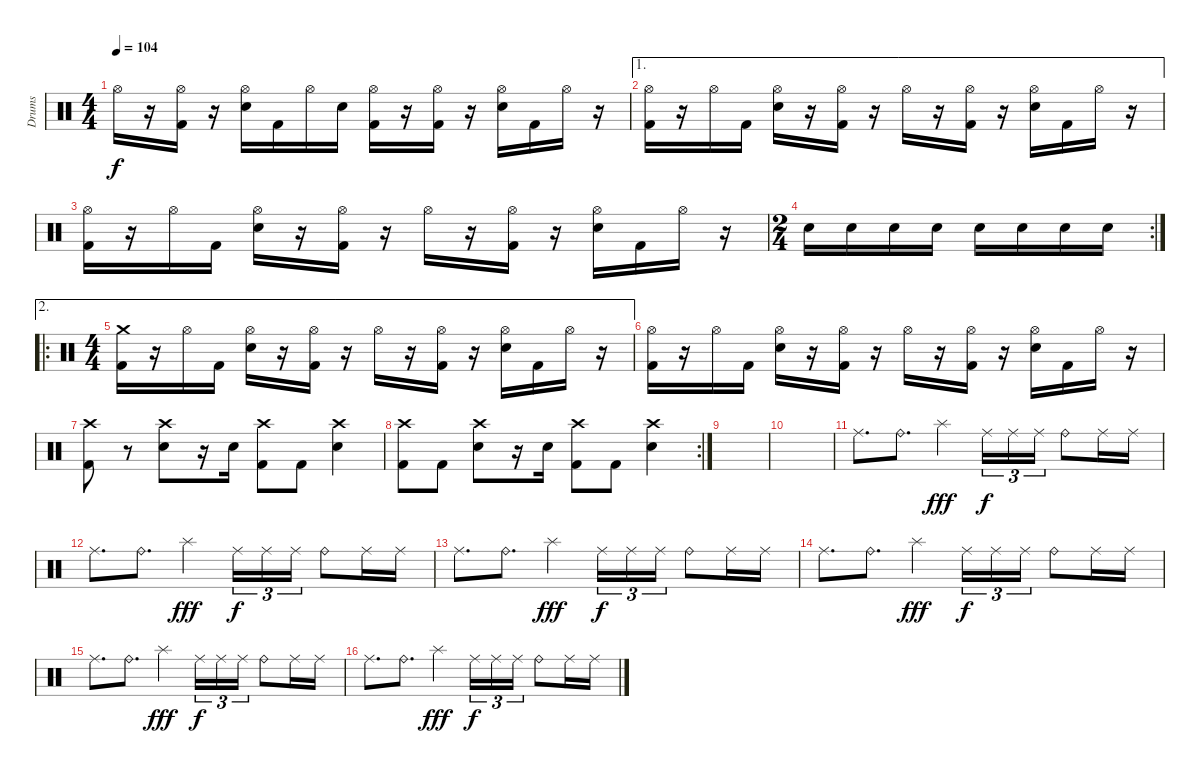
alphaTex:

\track ("Drums" "Drums") {instrument percussion}
\staff {score}
\articulation defaults
\ts (4 4)
\tempo 104
\clef neutral
\ks c "Hi-Hat (open)".16{dy f}
r.16 ("Hi-Hat (open)" "Kick (hit) 2").16 r.16 ("Hi-Hat (open)" "Snare (hit) 2").16 "Kick (hit) 2".16 "Hi-Hat (open)".16 "Snare (hit) 2".16 ("Hi-Hat (open)" "Kick (hit) 2").16 r.16 ("Hi-Hat (open)" "Kick (hit) 2").16 r.16 ("Hi-Hat (open)" "Snare (hit) 2").16 "Kick (hit) 2".16 "Hi-Hat (open)".16 r.16 |
\ae 1
("Hi-Hat (open)" "Kick (hit) 2").16 r.16 "Hi-Hat (open)".16 "Kick (hit) 2".16 ("Hi-Hat (open)" "Snare (hit) 2").16 r.16 ("Hi-Hat (open)" "Kick (hit) 2").16 r.16 "Hi-Hat (open)".16 r.16 ("Hi-Hat (open)" "Kick (hit) 2").16 r.16 ("Hi-Hat (open)" "Snare (hit) 2").16 "Kick (hit) 2".16 "Hi-Hat (open)".16 r.16 |
("Hi-Hat (open)" "Kick (hit) 2").16 r.16 "Hi-Hat (open)".16 "Kick (hit) 2".16 ("Hi-Hat (open)" "Snare (hit) 2").16 r.16 ("Hi-Hat (open)" "Kick (hit) 2").16 r.16 "Hi-Hat (open)".16 r.16 ("Hi-Hat (open)" "Kick (hit) 2").16 r.16 ("Hi-Hat (open)" "Snare (hit) 2").16 "Kick (hit) 2".16 "Hi-Hat (open)".16 r.16 |
\rc 2
\ts (2 4)
"Snare (hit) 2".16 "Snare (hit) 2".16 "Snare (hit) 2".16 "Snare (hit) 2".16 "Snare (hit) 2".16 "Snare (hit) 2".16 "Snare (hit) 2".16 "Snare (hit) 2".16 |
\ae 2
\ro
\ts (4 4)
("Crash medium (hit)" "Kick (hit) 2").16 r.16 "Hi-Hat (open)".16 "Kick (hit) 2".16 ("Hi-Hat (open)" "Snare (hit) 2").16 r.16 ("Hi-Hat (open)" "Kick (hit) 2").16 r.16 "Hi-Hat (open)".16 r.16 ("Hi-Hat (open)" "Kick (hit) 2").16 r.16 ("Hi-Hat (open)" "Snare (hit) 2").16 "Kick (hit) 2".16 "Hi-Hat (open)".16 r.16 |
("Hi-Hat (open)" "Kick (hit) 2").16 r.16 "Hi-Hat (open)".16 "Kick (hit) 2".16 ("Hi-Hat (open)" "Snare (hit) 2").16 r.16 ("Hi-Hat (open)" "Kick (hit) 2").16 r.16 "Hi-Hat (open)".16 r.16 ("Hi-Hat (open)" "Kick (hit) 2").16 r.16 ("Hi-Hat (open)" "Snare (hit) 2").16 "Kick (hit) 2".16 "Hi-Hat (open)".16 r.16 |
("Crash high (hit)" "Kick (hit) 2").8 r.8 ("Crash high (hit)" "Snare (hit) 2").8 r.16 "Snare (hit) 2".16 ("Crash high (hit)" "Kick (hit) 2").8 "Kick (hit) 2".8 ("Crash high (hit)" "Snare (hit) 2").4 |
\rc 2
("Crash high (hit)" "Kick (hit) 2").8 "Kick (hit) 2".8 ("Crash high (hit)" "Snare (hit) 2").8 r.16 "Snare (hit) 2".16 ("Crash high (hit)" "Kick (hit) 2").8 "Kick (hit) 2".8 ("Crash high (hit)" "Snare (hit) 2").4 |
|
|
"Ride (middle)".8{d} "Ride (bell)".8{d} "Splash (hit)".4{dy fff} "Ride (middle)".16{tu (3 2) dy f} "Ride (middle)".16{tu (3 2)} "Ride (middle)".16{tu (3 2)} "Ride (bell)".8 "Ride (middle)".16 "Ride (middle)".16 |
"Ride (middle)".8{d} "Ride (bell)".8{d} "Splash (hit)".4{dy fff} "Ride (middle)".16{tu (3 2) dy f} "Ride (middle)".16{tu (3 2)} "Ride (middle)".16{tu (3 2)} "Ride (bell)".8 "Ride (middle)".16 "Ride (middle)".16 |
"Ride (middle)".8{d} "Ride (bell)".8{d} "Splash (hit)".4{dy fff} "Ride (middle)".16{tu (3 2) dy f} "Ride (middle)".16{tu (3 2)} "Ride (middle)".16{tu (3 2)} "Ride (bell)".8 "Ride (middle)".16 "Ride (middle)".16 |
"Ride (middle)".8{d} "Ride (bell)".8{d} "Splash (hit)".4{dy fff} "Ride (middle)".16{tu (3 2) dy f} "Ride (middle)".16{tu (3 2)} "Ride (middle)".16{tu (3 2)} "Ride (bell)".8 "Ride (middle)".16 "Ride (middle)".16 |
"Ride (middle)".8{d} "Ride (bell)".8{d} "Splash (hit)".4{dy fff} "Ride (middle)".16{tu (3 2) dy f} "Ride (middle)".16{tu (3 2)} "Ride (middle)".16{tu (3 2)} "Ride (bell)".8 "Ride (middle)".16 "Ride (middle)".16 |
"Ride (middle)".8{d} "Ride (bell)".8{d} "Splash (hit)".4{dy fff} "Ride (middle)".16{tu (3 2) dy f} "Ride (middle)".16{tu (3 2)} "Ride (middle)".16{tu (3 2)} "Ride (bell)".8 "Ride (middle)".16 "Ride (middle)".16
